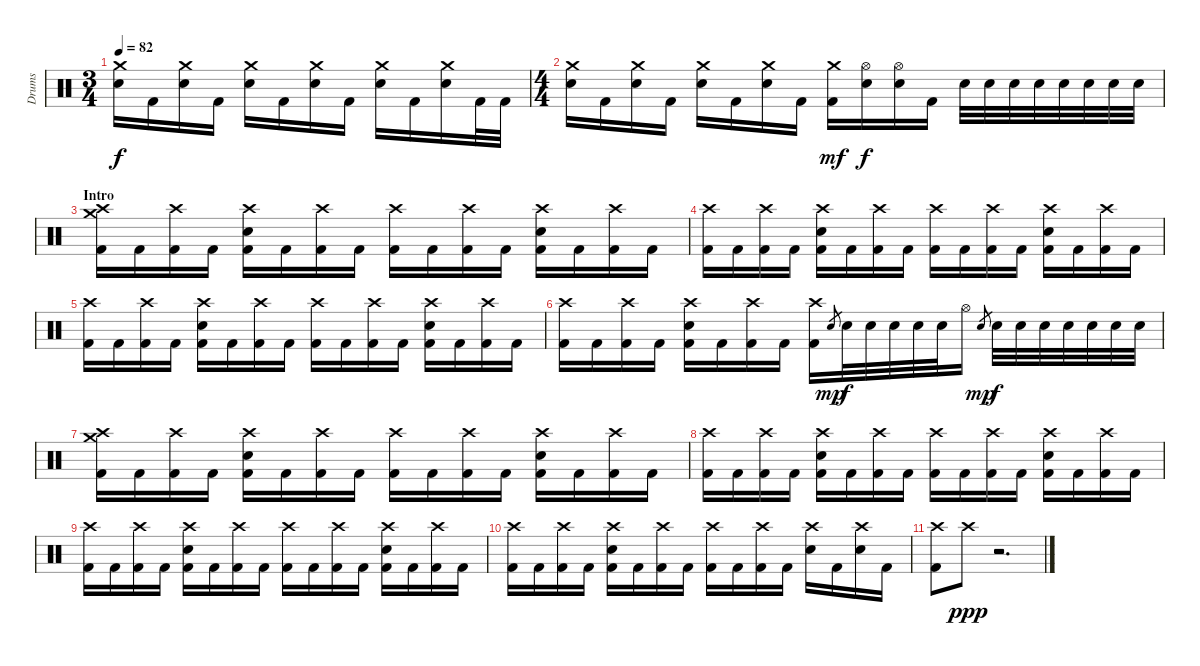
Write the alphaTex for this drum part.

\track ("Drums" "Drums") {instrument percussion}
\staff {score}
\articulation defaults
\ts (3 4)
\tempo 82
\clef neutral
\ks c
("Crash medium (hit)" "Electric Snare (hit)").16{dy f} "Kick (hit) 2".16 ("Crash medium (hit)" "Electric Snare (hit)").16 "Kick (hit) 2".16 ("Crash medium (hit)" "Electric Snare (hit)").16 "Kick (hit) 2".16 ("Crash medium (hit)" "Electric Snare (hit)").16 "Kick (hit) 2".16 ("Crash medium (hit)" "Electric Snare (hit)").16 "Kick (hit) 2".16 ("Crash medium (hit)" "Electric Snare (hit)").16 "Kick (hit) 2".32 "Kick (hit) 2".32 |
\ts (4 4)
("Crash medium (hit)" "Electric Snare (hit)").16 "Kick (hit) 2".16 ("Crash medium (hit)" "Electric Snare (hit)").16 "Kick (hit) 2".16 ("Crash medium (hit)" "Electric Snare (hit)").16 "Kick (hit) 2".16 ("Crash medium (hit)" "Electric Snare (hit)").16 "Kick (hit) 2".16 ("Crash medium (hit)" "Kick (hit) 2").16{dy mf} ("Hi-Hat (open)" "Electric Snare (hit)").16{dy f} ("Hi-Hat (open)" "Electric Snare (hit)").16 "Kick (hit) 2".16 "Electric Snare (hit)".32 "Electric Snare (hit)".32 "Electric Snare (hit)".32 "Electric Snare (hit)".32 "Electric Snare (hit)".32 "Electric Snare (hit)".32 "Electric Snare (hit)".32 "Electric Snare (hit)".32 |
\section ("" "Intro")
("Crash high (hit)" "Crash medium (hit)" "Kick (hit) 2").16 "Kick (hit) 2".16 ("Crash high (hit)" "Kick (hit) 2").16 "Kick (hit) 2".16 ("Crash high (hit)" "Electric Snare (hit)" "Kick (hit) 2").16 "Kick (hit) 2".16 ("Crash high (hit)" "Kick (hit) 2").16 "Kick (hit) 2".16 ("Crash high (hit)" "Kick (hit) 2").16 "Kick (hit) 2".16 ("Crash high (hit)" "Kick (hit) 2").16 "Kick (hit) 2".16 ("Crash high (hit)" "Electric Snare (hit)" "Kick (hit) 2").16 "Kick (hit) 2".16 ("Crash high (hit)" "Kick (hit) 2").16 "Kick (hit) 2".16 |
("Crash high (hit)" "Kick (hit) 2").16 "Kick (hit) 2".16 ("Crash high (hit)" "Kick (hit) 2").16 "Kick (hit) 2".16 ("Crash high (hit)" "Electric Snare (hit)" "Kick (hit) 2").16 "Kick (hit) 2".16 ("Crash high (hit)" "Kick (hit) 2").16 "Kick (hit) 2".16 ("Crash high (hit)" "Kick (hit) 2").16 "Kick (hit) 2".16 ("Crash high (hit)" "Kick (hit) 2").16 "Kick (hit) 2".16 ("Crash high (hit)" "Electric Snare (hit)" "Kick (hit) 2").16 "Kick (hit) 2".16 ("Crash high (hit)" "Kick (hit) 2").16 "Kick (hit) 2".16 |
("Crash high (hit)" "Kick (hit) 2").16 "Kick (hit) 2".16 ("Crash high (hit)" "Kick (hit) 2").16 "Kick (hit) 2".16 ("Crash high (hit)" "Electric Snare (hit)" "Kick (hit) 2").16 "Kick (hit) 2".16 ("Crash high (hit)" "Kick (hit) 2").16 "Kick (hit) 2".16 ("Crash high (hit)" "Kick (hit) 2").16 "Kick (hit) 2".16 ("Crash high (hit)" "Kick (hit) 2").16 "Kick (hit) 2".16 ("Crash high (hit)" "Electric Snare (hit)" "Kick (hit) 2").16 "Kick (hit) 2".16 ("Crash high (hit)" "Kick (hit) 2").16 "Kick (hit) 2".16 |
("Crash high (hit)" "Kick (hit) 2").16 "Kick (hit) 2".16 ("Crash high (hit)" "Kick (hit) 2").16 "Kick (hit) 2".16 ("Crash high (hit)" "Electric Snare (hit)" "Kick (hit) 2").16 "Kick (hit) 2".16 ("Crash high (hit)" "Kick (hit) 2").16 "Kick (hit) 2".16 ("Crash high (hit)" "Kick (hit) 2").16 "Electric Snare (hit)".8{gr dy mp} "Electric Snare (hit)".32{dy f} "Electric Snare (hit)".32 "Electric Snare (hit)".32 "Electric Snare (hit)".32 "Electric Snare (hit)".32 "Hi-Hat (open)".16 "Electric Snare (hit)".8{gr dy mp} "Electric Snare (hit)".32{dy f} "Electric Snare (hit)".32 "Electric Snare (hit)".32 "Electric Snare (hit)".32 "Electric Snare (hit)".32 "Electric Snare (hit)".32 "Electric Snare (hit)".32 |
("Crash high (hit)" "Crash medium (hit)" "Kick (hit) 2").16 "Kick (hit) 2".16 ("Crash high (hit)" "Kick (hit) 2").16 "Kick (hit) 2".16 ("Crash high (hit)" "Electric Snare (hit)" "Kick (hit) 2").16 "Kick (hit) 2".16 ("Crash high (hit)" "Kick (hit) 2").16 "Kick (hit) 2".16 ("Crash high (hit)" "Kick (hit) 2").16 "Kick (hit) 2".16 ("Crash high (hit)" "Kick (hit) 2").16 "Kick (hit) 2".16 ("Crash high (hit)" "Electric Snare (hit)" "Kick (hit) 2").16 "Kick (hit) 2".16 ("Crash high (hit)" "Kick (hit) 2").16 "Kick (hit) 2".16 |
("Crash high (hit)" "Kick (hit) 2").16 "Kick (hit) 2".16 ("Crash high (hit)" "Kick (hit) 2").16 "Kick (hit) 2".16 ("Crash high (hit)" "Electric Snare (hit)" "Kick (hit) 2").16 "Kick (hit) 2".16 ("Crash high (hit)" "Kick (hit) 2").16 "Kick (hit) 2".16 ("Crash high (hit)" "Kick (hit) 2").16 "Kick (hit) 2".16 ("Crash high (hit)" "Kick (hit) 2").16 "Kick (hit) 2".16 ("Crash high (hit)" "Electric Snare (hit)" "Kick (hit) 2").16 "Kick (hit) 2".16 ("Crash high (hit)" "Kick (hit) 2").16 "Kick (hit) 2".16 |
("Crash high (hit)" "Kick (hit) 2").16 "Kick (hit) 2".16 ("Crash high (hit)" "Kick (hit) 2").16 "Kick (hit) 2".16 ("Crash high (hit)" "Electric Snare (hit)" "Kick (hit) 2").16 "Kick (hit) 2".16 ("Crash high (hit)" "Kick (hit) 2").16 "Kick (hit) 2".16 ("Crash high (hit)" "Kick (hit) 2").16 "Kick (hit) 2".16 ("Crash high (hit)" "Kick (hit) 2").16 "Kick (hit) 2".16 ("Crash high (hit)" "Electric Snare (hit)" "Kick (hit) 2").16 "Kick (hit) 2".16 ("Crash high (hit)" "Kick (hit) 2").16 "Kick (hit) 2".16 |
("Crash high (hit)" "Kick (hit) 2").16 "Kick (hit) 2".16 ("Crash high (hit)" "Kick (hit) 2").16 "Kick (hit) 2".16 ("Crash high (hit)" "Electric Snare (hit)" "Kick (hit) 2").16 "Kick (hit) 2".16 ("Crash high (hit)" "Kick (hit) 2").16 "Kick (hit) 2".16 ("Crash high (hit)" "Kick (hit) 2").16 "Kick (hit) 2".16 ("Crash high (hit)" "Kick (hit) 2").16 "Kick (hit) 2".16 ("Crash high (hit)" "Electric Snare (hit)").16 "Kick (hit) 2".16 ("Crash high (hit)" "Electric Snare (hit)").16 "Kick (hit) 2".16 |
("Crash high (hit)" "Kick (hit) 2").8 "Crash high (hit)".8{dy ppp} r.2{d}
